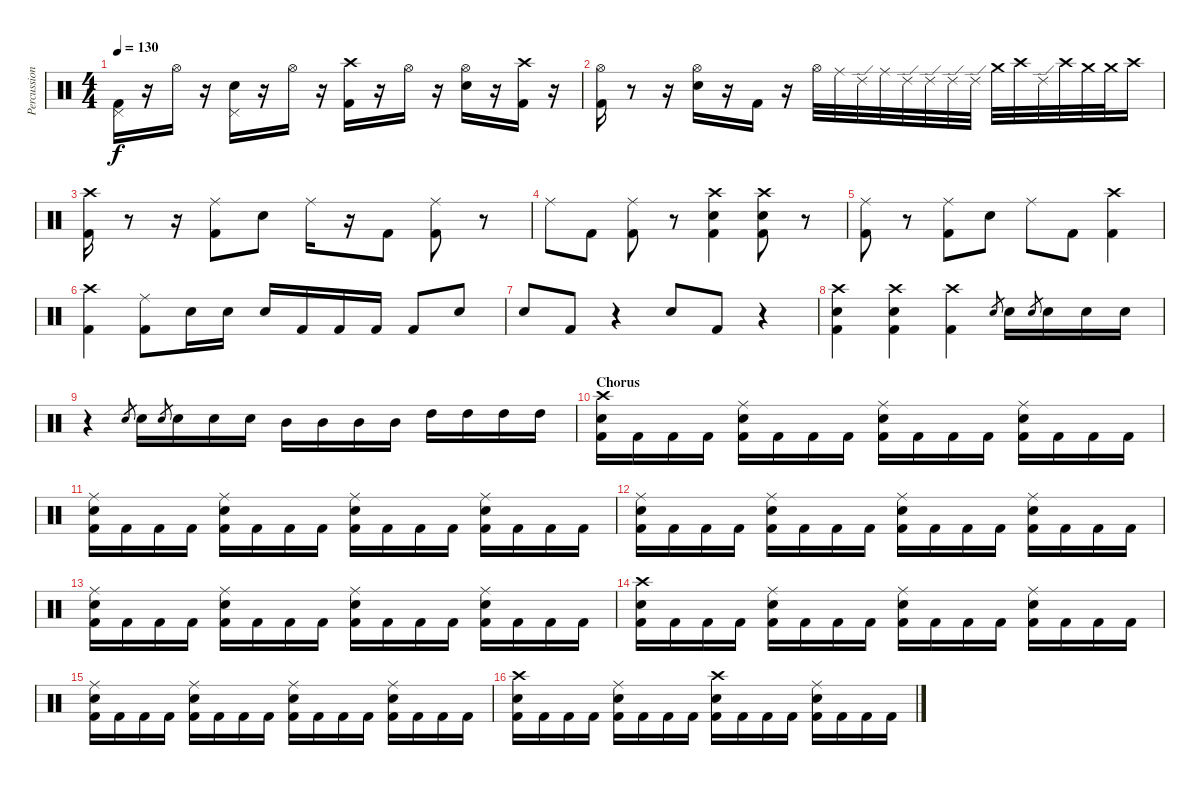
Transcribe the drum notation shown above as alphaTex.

\track ("Percussion" "Percussion") {instrument percussion}
\staff {score}
\articulation defaults
\ts (4 4)
\tempo 130
\clef neutral
\ks c
("Pedal Hi-Hat (hit)" "Kick (hit) 2").16{dy f} r.16 "Hi-Hat (open)".16 r.16 ("Pedal Hi-Hat (hit)" "Snare (hit) 2").16 r.16 "Hi-Hat (open)".16 r.16 ("Crash high (hit)" "Kick (hit) 2").16 r.16 "Hi-Hat (open)".16 r.16 ("Hi-Hat (open)" "Snare (hit) 2").16 r.16 ("Crash high (hit)" "Kick (hit) 2").16 r.16 |
("Hi-Hat (open)" "Kick (hit) 2").16 r.8 r.16 ("Hi-Hat (open)" "Snare (hit) 2").16 r.16 "Kick (hit) 2".16 r.16 "Hi-Hat (open)".32 "Ride (middle)".32 "Ride (edge) 2".32 "Ride (middle)".32 "Ride (edge) 2".32 "Ride (edge) 2".32 "Ride (edge) 2".32 "Ride (edge) 2".32 "Crash medium (hit)".32 "Crash high (hit)".32 "Ride (edge) 2".32 "Crash high (hit)".32 "Crash medium (hit)".32 "Crash medium (hit)".32 "Crash high (hit)".16 |
("Crash high (hit)" "Kick (hit) 2").16 r.8 r.16 ("Ride (middle)" "Kick (hit) 2").8 "Snare (hit) 2".8 "Ride (middle)".16 r.16 "Kick (hit) 2".8 ("Ride (middle)" "Kick (hit) 2").8 r.8 |
"Ride (middle)".8 "Kick (hit) 2".8 ("Ride (middle)" "Kick (hit) 2").8 r.8 ("Crash high (hit)" "Snare (hit) 2" "Kick (hit) 2").4 ("Crash high (hit)" "Snare (hit) 2" "Kick (hit) 2").8 r.8 |
("Ride (middle)" "Kick (hit) 2").8 r.8 ("Ride (middle)" "Kick (hit) 2").8 "Snare (hit) 2".8 "Ride (middle)".8 "Kick (hit) 2".8 ("Crash high (hit)" "Kick (hit) 2").4 |
("Crash high (hit)" "Kick (hit) 2").4 ("Ride (middle)" "Kick (hit) 2").8 "Snare (hit) 2".16 "Snare (hit) 2".16 "Snare (hit) 2".16 "Kick (hit) 2".16 "Kick (hit) 2".16 "Kick (hit) 2".16 "Kick (hit) 2".8 "Snare (hit) 2".8 |
"Snare (hit) 2".8 "Kick (hit) 2".8 r.4 "Snare (hit) 2".8 "Kick (hit) 2".8 r.4 |
("Crash high (hit)" "Snare (hit) 2" "Kick (hit) 2").4 ("Crash high (hit)" "Snare (hit) 2" "Kick (hit) 2").4 ("Crash high (hit)" "Kick (hit) 2").4 "Snare (hit) 2".8{gr} "Snare (hit) 2".16 "Snare (hit) 2".8{gr} "Snare (hit) 2".16 "Snare (hit) 2".16 "Snare (hit) 2".16 |
r.4 "Snare (hit) 2".8{gr} "Snare (hit) 2".16 "Snare (hit) 2".8{gr} "Snare (hit) 2".16 "Snare (hit) 2".16 "Snare (hit) 2".16 "Mid Tom (hit)".16 "Mid Tom (hit)".16 "Mid Tom (hit)".16 "Mid Tom (hit)".16 "High Tom (hit)".16 "High Tom (hit)".16 "High Tom (hit)".16 "High Tom (hit)".16 |
\section ("" "Chorus")
("Crash high (hit)" "Snare (hit) 2" "Kick (hit) 2").16 "Kick (hit) 2".16 "Kick (hit) 2".16 "Kick (hit) 2".16 ("Ride (middle)" "Snare (hit) 2" "Kick (hit) 2").16 "Kick (hit) 2".16 "Kick (hit) 2".16 "Kick (hit) 2".16 ("Ride (middle)" "Snare (hit) 2" "Kick (hit) 2").16 "Kick (hit) 2".16 "Kick (hit) 2".16 "Kick (hit) 2".16 ("Ride (middle)" "Snare (hit) 2" "Kick (hit) 2").16 "Kick (hit) 2".16 "Kick (hit) 2".16 "Kick (hit) 2".16 |
("Ride (middle)" "Snare (hit) 2" "Kick (hit) 2").16 "Kick (hit) 2".16 "Kick (hit) 2".16 "Kick (hit) 2".16 ("Ride (middle)" "Snare (hit) 2" "Kick (hit) 2").16 "Kick (hit) 2".16 "Kick (hit) 2".16 "Kick (hit) 2".16 ("Ride (middle)" "Snare (hit) 2" "Kick (hit) 2").16 "Kick (hit) 2".16 "Kick (hit) 2".16 "Kick (hit) 2".16 ("Ride (middle)" "Snare (hit) 2" "Kick (hit) 2").16 "Kick (hit) 2".16 "Kick (hit) 2".16 "Kick (hit) 2".16 |
("Ride (middle)" "Snare (hit) 2" "Kick (hit) 2").16 "Kick (hit) 2".16 "Kick (hit) 2".16 "Kick (hit) 2".16 ("Ride (middle)" "Snare (hit) 2" "Kick (hit) 2").16 "Kick (hit) 2".16 "Kick (hit) 2".16 "Kick (hit) 2".16 ("Ride (middle)" "Snare (hit) 2" "Kick (hit) 2").16 "Kick (hit) 2".16 "Kick (hit) 2".16 "Kick (hit) 2".16 ("Ride (middle)" "Snare (hit) 2" "Kick (hit) 2").16 "Kick (hit) 2".16 "Kick (hit) 2".16 "Kick (hit) 2".16 |
("Ride (middle)" "Snare (hit) 2" "Kick (hit) 2").16 "Kick (hit) 2".16 "Kick (hit) 2".16 "Kick (hit) 2".16 ("Ride (middle)" "Snare (hit) 2" "Kick (hit) 2").16 "Kick (hit) 2".16 "Kick (hit) 2".16 "Kick (hit) 2".16 ("Ride (middle)" "Snare (hit) 2" "Kick (hit) 2").16 "Kick (hit) 2".16 "Kick (hit) 2".16 "Kick (hit) 2".16 ("Ride (middle)" "Snare (hit) 2" "Kick (hit) 2").16 "Kick (hit) 2".16 "Kick (hit) 2".16 "Kick (hit) 2".16 |
("Crash high (hit)" "Snare (hit) 2" "Kick (hit) 2").16 "Kick (hit) 2".16 "Kick (hit) 2".16 "Kick (hit) 2".16 ("Ride (middle)" "Snare (hit) 2" "Kick (hit) 2").16 "Kick (hit) 2".16 "Kick (hit) 2".16 "Kick (hit) 2".16 ("Ride (middle)" "Snare (hit) 2" "Kick (hit) 2").16 "Kick (hit) 2".16 "Kick (hit) 2".16 "Kick (hit) 2".16 ("Ride (middle)" "Snare (hit) 2" "Kick (hit) 2").16 "Kick (hit) 2".16 "Kick (hit) 2".16 "Kick (hit) 2".16 |
("Ride (middle)" "Snare (hit) 2" "Kick (hit) 2").16 "Kick (hit) 2".16 "Kick (hit) 2".16 "Kick (hit) 2".16 ("Ride (middle)" "Snare (hit) 2" "Kick (hit) 2").16 "Kick (hit) 2".16 "Kick (hit) 2".16 "Kick (hit) 2".16 ("Ride (middle)" "Snare (hit) 2" "Kick (hit) 2").16 "Kick (hit) 2".16 "Kick (hit) 2".16 "Kick (hit) 2".16 ("Ride (middle)" "Snare (hit) 2" "Kick (hit) 2").16 "Kick (hit) 2".16 "Kick (hit) 2".16 "Kick (hit) 2".16 |
("Crash high (hit)" "Snare (hit) 2" "Kick (hit) 2").16 "Kick (hit) 2".16 "Kick (hit) 2".16 "Kick (hit) 2".16 ("Ride (middle)" "Snare (hit) 2" "Kick (hit) 2").16 "Kick (hit) 2".16 "Kick (hit) 2".16 "Kick (hit) 2".16 ("Crash high (hit)" "Snare (hit) 2" "Kick (hit) 2").16 "Kick (hit) 2".16 "Kick (hit) 2".16 "Kick (hit) 2".16 ("Ride (middle)" "Snare (hit) 2" "Kick (hit) 2").16 "Kick (hit) 2".16 "Kick (hit) 2".16 "Kick (hit) 2".16
